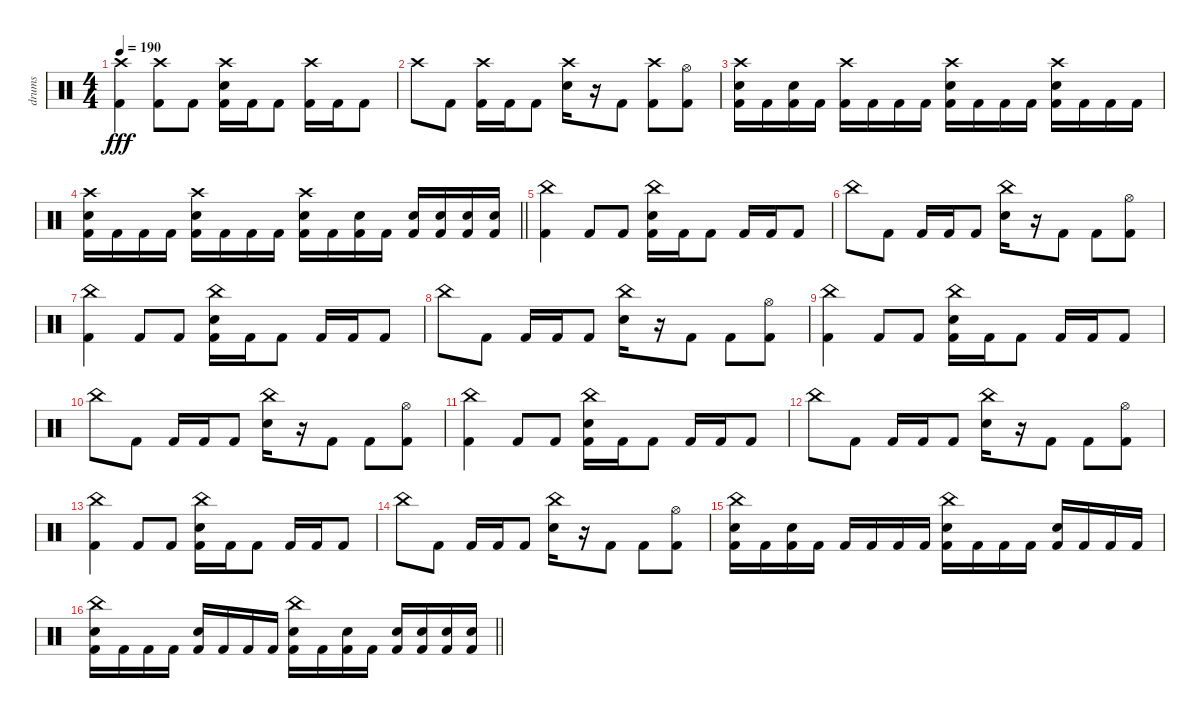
\track ("drums" "drums") {instrument percussion}
\staff {score}
\articulation defaults
\ts (4 4)
\tempo 190
\clef neutral
\ks c
("Crash high (hit)" "Kick (hit) 2").4{dy fff} ("Crash high (hit)" "Kick (hit) 2").8 "Kick (hit) 2".8 ("Crash high (hit)" "Electric Snare (hit)" "Kick (hit) 2").16 "Kick (hit) 2".16 "Kick (hit) 2".8 ("Crash high (hit)" "Kick (hit) 2").16 "Kick (hit) 2".16 "Kick (hit) 2".8 |
"Crash high (hit)".8 "Kick (hit) 2".8 ("Crash high (hit)" "Kick (hit) 2").16 "Kick (hit) 2".16 "Kick (hit) 2".8 ("Crash high (hit)" "Electric Snare (hit)").16 r.16 "Kick (hit) 2".8 ("Crash high (hit)" "Kick (hit) 2").8 ("Hi-Hat (open)" "Kick (hit) 2").8 |
("Crash high (hit)" "Electric Snare (hit)" "Kick (hit) 2").16 "Kick (hit) 2".16 ("Electric Snare (hit)" "Kick (hit) 2").16 "Kick (hit) 2".16 ("Crash high (hit)" "Kick (hit) 2").16 "Kick (hit) 2".16 "Kick (hit) 2".16 "Kick (hit) 2".16 ("Crash high (hit)" "Electric Snare (hit)" "Kick (hit) 2").16 "Kick (hit) 2".16 "Kick (hit) 2".16 "Kick (hit) 2".16 ("Crash high (hit)" "Electric Snare (hit)" "Kick (hit) 2").16 "Kick (hit) 2".16 "Kick (hit) 2".16 "Kick (hit) 2".16 |
\barLineRight lightlight
("Crash high (hit)" "Electric Snare (hit)" "Kick (hit) 2").16 "Kick (hit) 2".16 "Kick (hit) 2".16 "Kick (hit) 2".16 ("Crash high (hit)" "Electric Snare (hit)" "Kick (hit) 2").16 "Kick (hit) 2".16 "Kick (hit) 2".16 "Kick (hit) 2".16 ("Crash high (hit)" "Electric Snare (hit)" "Kick (hit) 2").16 "Kick (hit) 2".16 ("Electric Snare (hit)" "Kick (hit) 2").16 "Kick (hit) 2".16 ("Electric Snare (hit)" "Kick (hit) 2").16 ("Electric Snare (hit)" "Kick (hit) 2").16 ("Electric Snare (hit)" "Kick (hit) 2").16 ("Electric Snare (hit)" "Kick (hit) 2").16 |
\section ("" "")
("China (hit)" "Kick (hit) 2").4 "Kick (hit) 2".8 "Kick (hit) 2".8 ("China (hit)" "Electric Snare (hit)" "Kick (hit) 2").16 "Kick (hit) 2".16 "Kick (hit) 2".8 "Kick (hit) 2".16 "Kick (hit) 2".16 "Kick (hit) 2".8 |
"China (hit)".8 "Kick (hit) 2".8 "Kick (hit) 2".16 "Kick (hit) 2".16 "Kick (hit) 2".8 ("China (hit)" "Electric Snare (hit)").16 r.16 "Kick (hit) 2".8 "Kick (hit) 2".8 ("Hi-Hat (open)" "Kick (hit) 2").8 |
("China (hit)" "Kick (hit) 2").4 "Kick (hit) 2".8 "Kick (hit) 2".8 ("China (hit)" "Electric Snare (hit)" "Kick (hit) 2").16 "Kick (hit) 2".16 "Kick (hit) 2".8 "Kick (hit) 2".16 "Kick (hit) 2".16 "Kick (hit) 2".8 |
"China (hit)".8 "Kick (hit) 2".8 "Kick (hit) 2".16 "Kick (hit) 2".16 "Kick (hit) 2".8 ("China (hit)" "Electric Snare (hit)").16 r.16 "Kick (hit) 2".8 "Kick (hit) 2".8 ("Hi-Hat (open)" "Kick (hit) 2").8 |
("China (hit)" "Kick (hit) 2").4 "Kick (hit) 2".8 "Kick (hit) 2".8 ("China (hit)" "Electric Snare (hit)" "Kick (hit) 2").16 "Kick (hit) 2".16 "Kick (hit) 2".8 "Kick (hit) 2".16 "Kick (hit) 2".16 "Kick (hit) 2".8 |
"China (hit)".8 "Kick (hit) 2".8 "Kick (hit) 2".16 "Kick (hit) 2".16 "Kick (hit) 2".8 ("China (hit)" "Electric Snare (hit)").16 r.16 "Kick (hit) 2".8 "Kick (hit) 2".8 ("Hi-Hat (open)" "Kick (hit) 2").8 |
("China (hit)" "Kick (hit) 2").4 "Kick (hit) 2".8 "Kick (hit) 2".8 ("China (hit)" "Electric Snare (hit)" "Kick (hit) 2").16 "Kick (hit) 2".16 "Kick (hit) 2".8 "Kick (hit) 2".16 "Kick (hit) 2".16 "Kick (hit) 2".8 |
"China (hit)".8 "Kick (hit) 2".8 "Kick (hit) 2".16 "Kick (hit) 2".16 "Kick (hit) 2".8 ("China (hit)" "Electric Snare (hit)").16 r.16 "Kick (hit) 2".8 "Kick (hit) 2".8 ("Hi-Hat (open)" "Kick (hit) 2").8 |
("China (hit)" "Kick (hit) 2").4 "Kick (hit) 2".8 "Kick (hit) 2".8 ("China (hit)" "Electric Snare (hit)" "Kick (hit) 2").16 "Kick (hit) 2".16 "Kick (hit) 2".8 "Kick (hit) 2".16 "Kick (hit) 2".16 "Kick (hit) 2".8 |
"China (hit)".8 "Kick (hit) 2".8 "Kick (hit) 2".16 "Kick (hit) 2".16 "Kick (hit) 2".8 ("China (hit)" "Electric Snare (hit)").16 r.16 "Kick (hit) 2".8 "Kick (hit) 2".8 ("Hi-Hat (open)" "Kick (hit) 2").8 |
("China (hit)" "Electric Snare (hit)" "Kick (hit) 2").16 "Kick (hit) 2".16 ("Electric Snare (hit)" "Kick (hit) 2").16 "Kick (hit) 2".16 "Kick (hit) 2".16 "Kick (hit) 2".16 "Kick (hit) 2".16 "Kick (hit) 2".16 ("China (hit)" "Electric Snare (hit)" "Kick (hit) 2").16 "Kick (hit) 2".16 "Kick (hit) 2".16 "Kick (hit) 2".16 ("Electric Snare (hit)" "Kick (hit) 2").16 "Kick (hit) 2".16 "Kick (hit) 2".16 "Kick (hit) 2".16 |
\barLineRight lightlight
("China (hit)" "Electric Snare (hit)" "Kick (hit) 2").16 "Kick (hit) 2".16 "Kick (hit) 2".16 "Kick (hit) 2".16 ("Electric Snare (hit)" "Kick (hit) 2").16 "Kick (hit) 2".16 "Kick (hit) 2".16 "Kick (hit) 2".16 ("China (hit)" "Electric Snare (hit)" "Kick (hit) 2").16 "Kick (hit) 2".16 ("Electric Snare (hit)" "Kick (hit) 2").16 "Kick (hit) 2".16 ("Electric Snare (hit)" "Kick (hit) 2").16 ("Electric Snare (hit)" "Kick (hit) 2").16 ("Electric Snare (hit)" "Kick (hit) 2").16 ("Electric Snare (hit)" "Kick (hit) 2").16
